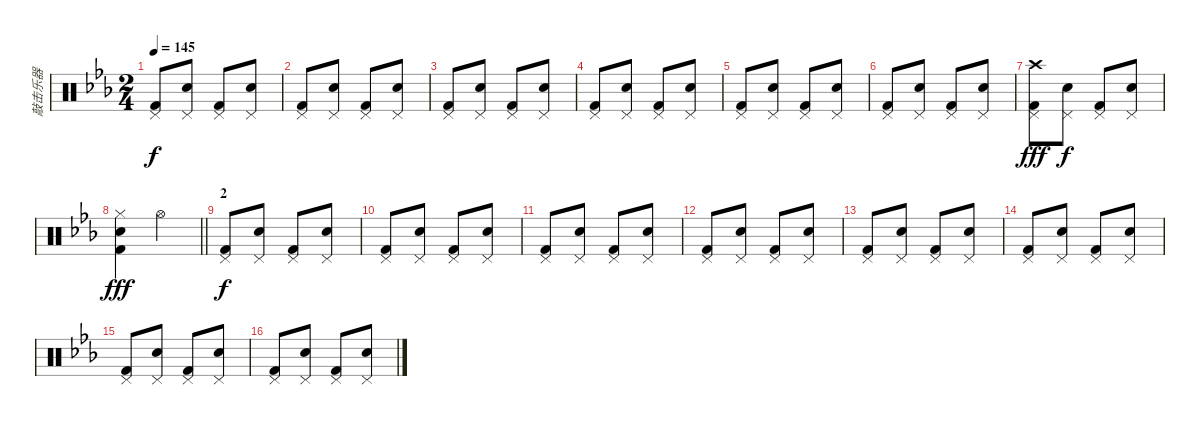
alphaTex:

\track ("敲击乐器" "敲击乐器") {instrument percussion}
\staff {score}
\articulation defaults
\ts (2 4)
\tempo 145
\clef neutral
\ks eb
("Pedal Hi-Hat (hit)" "Kick (hit) 2").8{dy f} ("Pedal Hi-Hat (hit)" "Snare (hit) 2").8 ("Pedal Hi-Hat (hit)" "Kick (hit) 2").8 ("Pedal Hi-Hat (hit)" "Snare (hit) 2").8 |
("Pedal Hi-Hat (hit)" "Kick (hit) 2").8 ("Pedal Hi-Hat (hit)" "Snare (hit) 2").8 ("Pedal Hi-Hat (hit)" "Kick (hit) 2").8 ("Pedal Hi-Hat (hit)" "Snare (hit) 2").8 |
("Pedal Hi-Hat (hit)" "Kick (hit) 2").8 ("Pedal Hi-Hat (hit)" "Snare (hit) 2").8 ("Pedal Hi-Hat (hit)" "Kick (hit) 2").8 ("Pedal Hi-Hat (hit)" "Snare (hit) 2").8 |
("Pedal Hi-Hat (hit)" "Kick (hit) 2").8 ("Pedal Hi-Hat (hit)" "Snare (hit) 2").8 ("Pedal Hi-Hat (hit)" "Kick (hit) 2").8 ("Pedal Hi-Hat (hit)" "Snare (hit) 2").8 |
("Pedal Hi-Hat (hit)" "Kick (hit) 2").8 ("Pedal Hi-Hat (hit)" "Snare (hit) 2").8 ("Pedal Hi-Hat (hit)" "Kick (hit) 2").8 ("Pedal Hi-Hat (hit)" "Snare (hit) 2").8 |
("Pedal Hi-Hat (hit)" "Kick (hit) 2").8 ("Pedal Hi-Hat (hit)" "Snare (hit) 2").8 ("Pedal Hi-Hat (hit)" "Kick (hit) 2").8 ("Pedal Hi-Hat (hit)" "Snare (hit) 2").8 |
("Crash high (hit)" "Pedal Hi-Hat (hit)" "Kick (hit) 2").8{dy fff} ("Pedal Hi-Hat (hit)" "Snare (hit) 2").8{dy f} ("Pedal Hi-Hat (hit)" "Kick (hit) 2").8 ("Pedal Hi-Hat (hit)" "Snare (hit) 2").8 |
\barLineRight lightlight
("Hi-Hat (closed)" "Snare (hit) 2" "Kick (hit) 2").4{dy fff} "Hi-Hat (open)".4 |
\section ("" "2")
("Pedal Hi-Hat (hit)" "Kick (hit) 2").8{dy f} ("Pedal Hi-Hat (hit)" "Snare (hit) 2").8 ("Pedal Hi-Hat (hit)" "Kick (hit) 2").8 ("Pedal Hi-Hat (hit)" "Snare (hit) 2").8 |
("Pedal Hi-Hat (hit)" "Kick (hit) 2").8 ("Pedal Hi-Hat (hit)" "Snare (hit) 2").8 ("Pedal Hi-Hat (hit)" "Kick (hit) 2").8 ("Pedal Hi-Hat (hit)" "Snare (hit) 2").8 |
("Pedal Hi-Hat (hit)" "Kick (hit) 2").8 ("Pedal Hi-Hat (hit)" "Snare (hit) 2").8 ("Pedal Hi-Hat (hit)" "Kick (hit) 2").8 ("Pedal Hi-Hat (hit)" "Snare (hit) 2").8 |
("Pedal Hi-Hat (hit)" "Kick (hit) 2").8 ("Pedal Hi-Hat (hit)" "Snare (hit) 2").8 ("Pedal Hi-Hat (hit)" "Kick (hit) 2").8 ("Pedal Hi-Hat (hit)" "Snare (hit) 2").8 |
("Pedal Hi-Hat (hit)" "Kick (hit) 2").8 ("Pedal Hi-Hat (hit)" "Snare (hit) 2").8 ("Pedal Hi-Hat (hit)" "Kick (hit) 2").8 ("Pedal Hi-Hat (hit)" "Snare (hit) 2").8 |
("Pedal Hi-Hat (hit)" "Kick (hit) 2").8 ("Pedal Hi-Hat (hit)" "Snare (hit) 2").8 ("Pedal Hi-Hat (hit)" "Kick (hit) 2").8 ("Pedal Hi-Hat (hit)" "Snare (hit) 2").8 |
("Pedal Hi-Hat (hit)" "Kick (hit) 2").8 ("Pedal Hi-Hat (hit)" "Snare (hit) 2").8 ("Pedal Hi-Hat (hit)" "Kick (hit) 2").8 ("Pedal Hi-Hat (hit)" "Snare (hit) 2").8 |
("Pedal Hi-Hat (hit)" "Kick (hit) 2").8 ("Pedal Hi-Hat (hit)" "Snare (hit) 2").8 ("Pedal Hi-Hat (hit)" "Kick (hit) 2").8 ("Pedal Hi-Hat (hit)" "Snare (hit) 2").8
